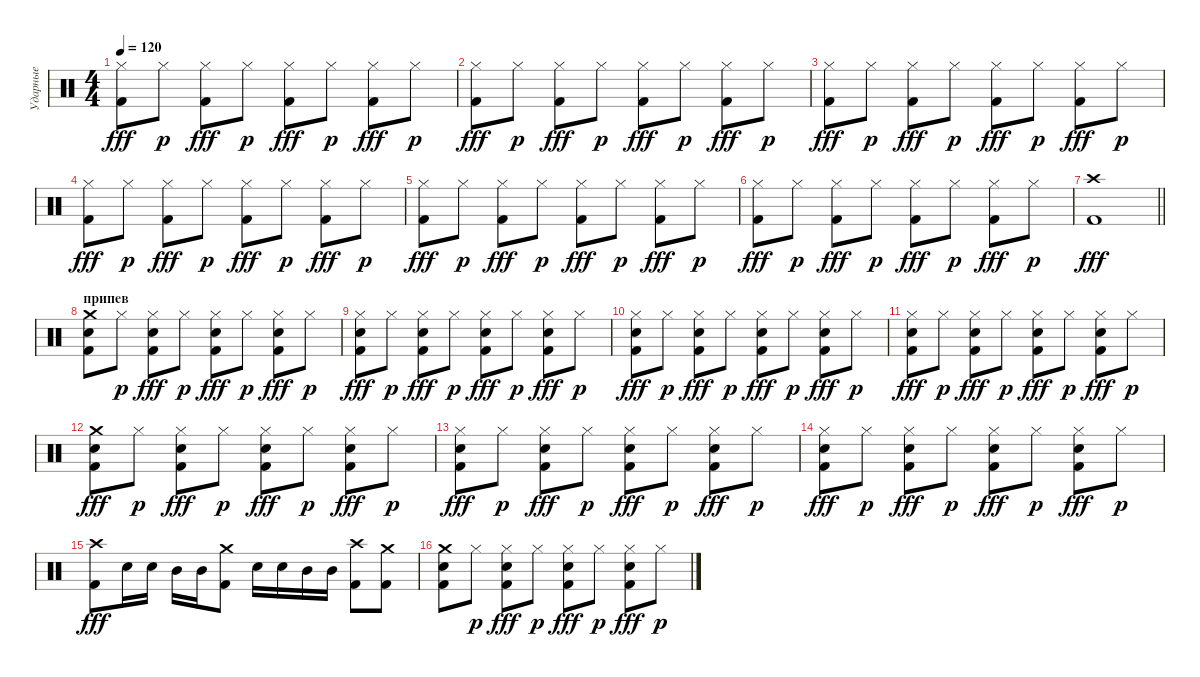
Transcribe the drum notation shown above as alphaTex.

\track ("Ударные" "Ударные") {instrument percussion}
\staff {score}
\articulation defaults
\ts (4 4)
\tempo 120
\clef neutral
\ks c
("Hi-Hat (closed)" "Kick (hit) 2").8{dy fff} "Hi-Hat (closed)".8{dy p} ("Hi-Hat (closed)" "Kick (hit) 2").8{dy fff} "Hi-Hat (closed)".8{dy p} ("Hi-Hat (closed)" "Kick (hit) 2").8{dy fff} "Hi-Hat (closed)".8{dy p} ("Hi-Hat (closed)" "Kick (hit) 2").8{dy fff} "Hi-Hat (closed)".8{dy p} |
("Hi-Hat (closed)" "Kick (hit) 2").8{dy fff} "Hi-Hat (closed)".8{dy p} ("Hi-Hat (closed)" "Kick (hit) 2").8{dy fff} "Hi-Hat (closed)".8{dy p} ("Hi-Hat (closed)" "Kick (hit) 2").8{dy fff} "Hi-Hat (closed)".8{dy p} ("Hi-Hat (closed)" "Kick (hit) 2").8{dy fff} "Hi-Hat (closed)".8{dy p} |
("Hi-Hat (closed)" "Kick (hit) 2").8{dy fff} "Hi-Hat (closed)".8{dy p} ("Hi-Hat (closed)" "Kick (hit) 2").8{dy fff} "Hi-Hat (closed)".8{dy p} ("Hi-Hat (closed)" "Kick (hit) 2").8{dy fff} "Hi-Hat (closed)".8{dy p} ("Hi-Hat (closed)" "Kick (hit) 2").8{dy fff} "Hi-Hat (closed)".8{dy p} |
("Hi-Hat (closed)" "Kick (hit) 2").8{dy fff} "Hi-Hat (closed)".8{dy p} ("Hi-Hat (closed)" "Kick (hit) 2").8{dy fff} "Hi-Hat (closed)".8{dy p} ("Hi-Hat (closed)" "Kick (hit) 2").8{dy fff} "Hi-Hat (closed)".8{dy p} ("Hi-Hat (closed)" "Kick (hit) 2").8{dy fff} "Hi-Hat (closed)".8{dy p} |
("Hi-Hat (closed)" "Kick (hit) 2").8{dy fff} "Hi-Hat (closed)".8{dy p} ("Hi-Hat (closed)" "Kick (hit) 2").8{dy fff} "Hi-Hat (closed)".8{dy p} ("Hi-Hat (closed)" "Kick (hit) 2").8{dy fff} "Hi-Hat (closed)".8{dy p} ("Hi-Hat (closed)" "Kick (hit) 2").8{dy fff} "Hi-Hat (closed)".8{dy p} |
("Hi-Hat (closed)" "Kick (hit) 2").8{dy fff} "Hi-Hat (closed)".8{dy p} ("Hi-Hat (closed)" "Kick (hit) 2").8{dy fff} "Hi-Hat (closed)".8{dy p} ("Hi-Hat (closed)" "Kick (hit) 2").8{dy fff} "Hi-Hat (closed)".8{dy p} ("Hi-Hat (closed)" "Kick (hit) 2").8{dy fff} "Hi-Hat (closed)".8{dy p} |
\barLineRight lightlight
("Crash high (hit)" "Kick (hit) 2").1{dy fff} |
\section ("" "припев")
("Crash medium (hit)" "Snare (hit) 2" "Kick (hit) 2").8 "Hi-Hat (closed)".8{dy p} ("Hi-Hat (closed)" "Snare (hit) 2" "Kick (hit) 2").8{dy fff} "Hi-Hat (closed)".8{dy p} ("Hi-Hat (closed)" "Snare (hit) 2" "Kick (hit) 2").8{dy fff} "Hi-Hat (closed)".8{dy p} ("Hi-Hat (closed)" "Snare (hit) 2" "Kick (hit) 2").8{dy fff} "Hi-Hat (closed)".8{dy p} |
("Hi-Hat (closed)" "Snare (hit) 2" "Kick (hit) 2").8{dy fff} "Hi-Hat (closed)".8{dy p} ("Hi-Hat (closed)" "Snare (hit) 2" "Kick (hit) 2").8{dy fff} "Hi-Hat (closed)".8{dy p} ("Hi-Hat (closed)" "Snare (hit) 2" "Kick (hit) 2").8{dy fff} "Hi-Hat (closed)".8{dy p} ("Hi-Hat (closed)" "Snare (hit) 2" "Kick (hit) 2").8{dy fff} "Hi-Hat (closed)".8{dy p} |
("Hi-Hat (closed)" "Snare (hit) 2" "Kick (hit) 2").8{dy fff} "Hi-Hat (closed)".8{dy p} ("Hi-Hat (closed)" "Snare (hit) 2" "Kick (hit) 2").8{dy fff} "Hi-Hat (closed)".8{dy p} ("Hi-Hat (closed)" "Snare (hit) 2" "Kick (hit) 2").8{dy fff} "Hi-Hat (closed)".8{dy p} ("Hi-Hat (closed)" "Snare (hit) 2" "Kick (hit) 2").8{dy fff} "Hi-Hat (closed)".8{dy p} |
("Hi-Hat (closed)" "Snare (hit) 2" "Kick (hit) 2").8{dy fff} "Hi-Hat (closed)".8{dy p} ("Hi-Hat (closed)" "Snare (hit) 2" "Kick (hit) 2").8{dy fff} "Hi-Hat (closed)".8{dy p} ("Hi-Hat (closed)" "Snare (hit) 2" "Kick (hit) 2").8{dy fff} "Hi-Hat (closed)".8{dy p} ("Hi-Hat (closed)" "Snare (hit) 2" "Kick (hit) 2").8{dy fff} "Hi-Hat (closed)".8{dy p} |
("Crash medium (hit)" "Snare (hit) 2" "Kick (hit) 2").8{dy fff} "Hi-Hat (closed)".8{dy p} ("Hi-Hat (closed)" "Snare (hit) 2" "Kick (hit) 2").8{dy fff} "Hi-Hat (closed)".8{dy p} ("Hi-Hat (closed)" "Snare (hit) 2" "Kick (hit) 2").8{dy fff} "Hi-Hat (closed)".8{dy p} ("Hi-Hat (closed)" "Snare (hit) 2" "Kick (hit) 2").8{dy fff} "Hi-Hat (closed)".8{dy p} |
("Hi-Hat (closed)" "Snare (hit) 2" "Kick (hit) 2").8{dy fff} "Hi-Hat (closed)".8{dy p} ("Hi-Hat (closed)" "Snare (hit) 2" "Kick (hit) 2").8{dy fff} "Hi-Hat (closed)".8{dy p} ("Hi-Hat (closed)" "Snare (hit) 2" "Kick (hit) 2").8{dy fff} "Hi-Hat (closed)".8{dy p} ("Hi-Hat (closed)" "Snare (hit) 2" "Kick (hit) 2").8{dy fff} "Hi-Hat (closed)".8{dy p} |
("Hi-Hat (closed)" "Snare (hit) 2" "Kick (hit) 2").8{dy fff} "Hi-Hat (closed)".8{dy p} ("Hi-Hat (closed)" "Snare (hit) 2" "Kick (hit) 2").8{dy fff} "Hi-Hat (closed)".8{dy p} ("Hi-Hat (closed)" "Snare (hit) 2" "Kick (hit) 2").8{dy fff} "Hi-Hat (closed)".8{dy p} ("Hi-Hat (closed)" "Snare (hit) 2" "Kick (hit) 2").8{dy fff} "Hi-Hat (closed)".8{dy p} |
("Crash high (hit)" "Kick (hit) 2").8{dy fff} "Snare (hit) 2".16 "Snare (hit) 2".16 "Mid Tom (hit)".16 "Mid Tom (hit)".16 ("Crash medium (hit)" "Kick (hit) 2").8 "Snare (hit) 2".16 "Snare (hit) 2".16 "Mid Tom (hit)".16 "Mid Tom (hit)".16 ("Crash high (hit)" "Kick (hit) 2").8 ("Crash medium (hit)" "Kick (hit) 2").8 |
("Crash medium (hit)" "Snare (hit) 2" "Kick (hit) 2").8 "Hi-Hat (closed)".8{dy p} ("Hi-Hat (closed)" "Snare (hit) 2" "Kick (hit) 2").8{dy fff} "Hi-Hat (closed)".8{dy p} ("Hi-Hat (closed)" "Snare (hit) 2" "Kick (hit) 2").8{dy fff} "Hi-Hat (closed)".8{dy p} ("Hi-Hat (closed)" "Snare (hit) 2" "Kick (hit) 2").8{dy fff} "Hi-Hat (closed)".8{dy p}
